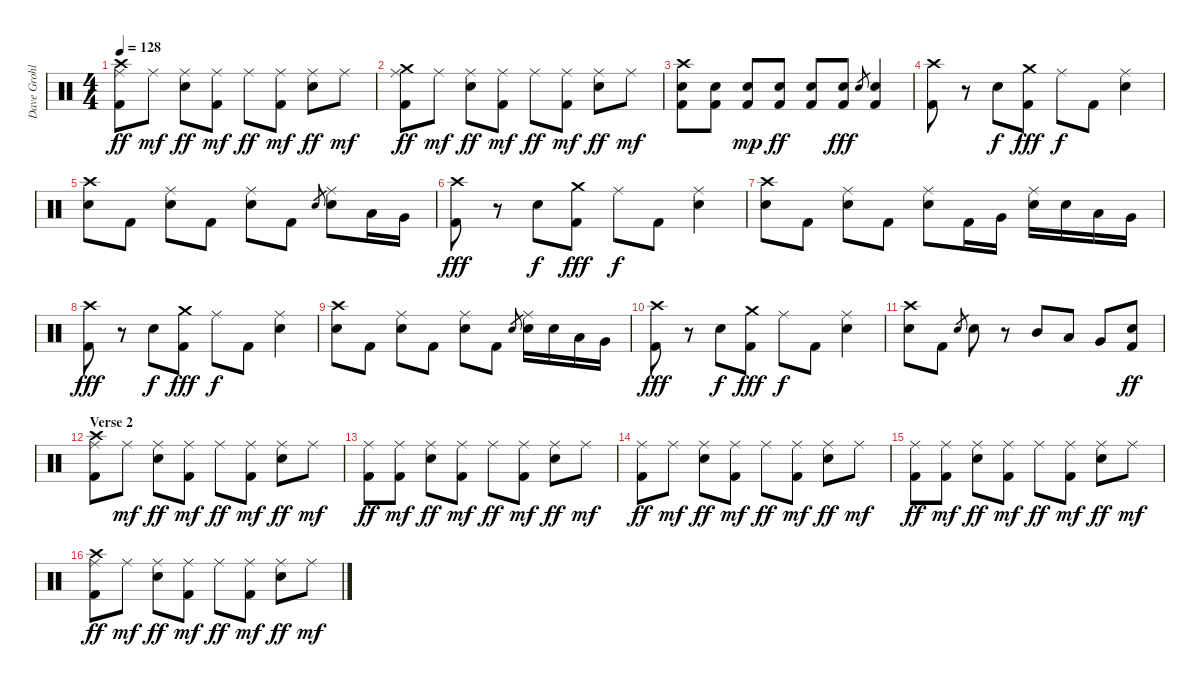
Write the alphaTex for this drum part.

\track ("Dave Grohl" "Dave Grohl") {instrument percussion}
\staff {score}
\articulation defaults
\ts (4 4)
\tempo 128
\clef neutral
\ks c
("Crash high (hit)" "Ride (middle)" "Kick (hit) 2").8{dy ff} "Ride (middle)".8{dy mf} ("Ride (middle)" "Snare (hit) 2").8{dy ff} ("Ride (middle)" "Kick (hit) 2").8{dy mf} "Ride (middle)".8{dy ff} ("Ride (middle)" "Kick (hit) 2").8{dy mf} ("Ride (middle)" "Snare (hit) 2").8{dy ff} "Ride (middle)".8{dy mf} |
("Crash medium (hit)" "Ride (middle)" "Kick (hit) 2").8{dy ff} "Ride (middle)".8{dy mf} ("Ride (middle)" "Snare (hit) 2").8{dy ff} ("Ride (middle)" "Kick (hit) 2").8{dy mf} "Ride (middle)".8{dy ff} ("Ride (middle)" "Kick (hit) 2").8{dy mf} ("Ride (middle)" "Snare (hit) 2").8{dy ff} "Ride (middle)".8{dy mf} |
("Crash high (hit)" "Snare (hit) 2" "Kick (hit) 2").8 ("Snare (hit) 2" "Kick (hit) 2").8 ("Snare (hit) 2" "Kick (hit) 2").8{dy mp} ("Snare (hit) 2" "Kick (hit) 2").8{dy ff} ("Snare (hit) 2" "Kick (hit) 2").8 ("Snare (hit) 2" "Kick (hit) 2").8{dy fff} "Snare (hit) 2".8{gr} ("Snare (hit) 2" "Kick (hit) 2").4 |
("Crash high (hit)" "Kick (hit) 2").8 r.8 "Snare (hit) 2".8{dy f} ("Crash medium (hit)" "Kick (hit) 2").8{dy fff} "Ride (middle)".8{dy f} "Kick (hit) 2".8 ("Ride (middle)" "Snare (hit) 2").4 |
("Crash high (hit)" "Snare (hit) 2").8 "Kick (hit) 2".8 ("Ride (middle)" "Snare (hit) 2").8 "Kick (hit) 2".8 ("Ride (middle)" "Snare (hit) 2").8 "Kick (hit) 2".8 "Snare (hit) 2".8{gr} ("Ride (middle)" "Snare (hit) 2").8 "Low Tom (hit)".16 "Very Low Tom (hit)".16 |
("Crash high (hit)" "Kick (hit) 2").8{dy fff} r.8 "Snare (hit) 2".8{dy f} ("Crash medium (hit)" "Kick (hit) 2").8{dy fff} "Ride (middle)".8{dy f} "Kick (hit) 2".8 ("Ride (middle)" "Snare (hit) 2").4 |
("Crash high (hit)" "Snare (hit) 2").8 "Kick (hit) 2".8 ("Ride (middle)" "Snare (hit) 2").8 "Kick (hit) 2".8 ("Ride (middle)" "Snare (hit) 2").8 "Kick (hit) 2".16 "Very Low Tom (hit)".16 ("Ride (middle)" "Snare (hit) 2").16 "Snare (hit) 2".16 "Low Tom (hit)".16 "Very Low Tom (hit)".16 |
("Crash high (hit)" "Kick (hit) 2").8{dy fff} r.8 "Snare (hit) 2".8{dy f} ("Crash medium (hit)" "Kick (hit) 2").8{dy fff} "Ride (middle)".8{dy f} "Kick (hit) 2".8 ("Ride (middle)" "Snare (hit) 2").4 |
("Crash high (hit)" "Snare (hit) 2").8 "Kick (hit) 2".8 ("Ride (middle)" "Snare (hit) 2").8 "Kick (hit) 2".8 ("Ride (middle)" "Snare (hit) 2").8 "Kick (hit) 2".8 "Snare (hit) 2".8{gr} ("Ride (middle)" "Snare (hit) 2").16 "Snare (hit) 2".16 "Low Tom (hit)".16 "Very Low Tom (hit)".16 |
("Crash high (hit)" "Kick (hit) 2").8{dy fff} r.8 "Snare (hit) 2".8{dy f} ("Crash medium (hit)" "Kick (hit) 2").8{dy fff} "Ride (middle)".8{dy f} "Kick (hit) 2".8 ("Ride (middle)" "Snare (hit) 2").4 |
("Crash high (hit)" "Snare (hit) 2").8 "Kick (hit) 2".8 "Snare (hit) 2".8{gr} "Snare (hit) 2".8 r.8 "Mid Tom (hit)".8 "Low Tom (hit)".8 "Very Low Tom (hit)".8 ("Snare (hit) 2" "Kick (hit) 2").8{dy ff} |
\section ("" "Verse 2")
("Crash high (hit)" "Ride (middle)" "Kick (hit) 2").8 "Ride (middle)".8{dy mf} ("Ride (middle)" "Snare (hit) 2").8{dy ff} ("Ride (middle)" "Kick (hit) 2").8{dy mf} "Ride (middle)".8{dy ff} ("Ride (middle)" "Kick (hit) 2").8{dy mf} ("Ride (middle)" "Snare (hit) 2").8{dy ff} "Ride (middle)".8{dy mf} |
("Ride (middle)" "Kick (hit) 2").8{dy ff} ("Ride (middle)" "Kick (hit) 2").8{dy mf} ("Ride (middle)" "Snare (hit) 2").8{dy ff} ("Ride (middle)" "Kick (hit) 2").8{dy mf} "Ride (middle)".8{dy ff} ("Ride (middle)" "Kick (hit) 2").8{dy mf} ("Ride (middle)" "Snare (hit) 2").8{dy ff} "Ride (middle)".8{dy mf} |
("Ride (middle)" "Kick (hit) 2").8{dy ff} "Ride (middle)".8{dy mf} ("Ride (middle)" "Snare (hit) 2").8{dy ff} ("Ride (middle)" "Kick (hit) 2").8{dy mf} "Ride (middle)".8{dy ff} ("Ride (middle)" "Kick (hit) 2").8{dy mf} ("Ride (middle)" "Snare (hit) 2").8{dy ff} "Ride (middle)".8{dy mf} |
("Ride (middle)" "Kick (hit) 2").8{dy ff} ("Ride (middle)" "Kick (hit) 2").8{dy mf} ("Ride (middle)" "Snare (hit) 2").8{dy ff} ("Ride (middle)" "Kick (hit) 2").8{dy mf} "Ride (middle)".8{dy ff} ("Ride (middle)" "Kick (hit) 2").8{dy mf} ("Ride (middle)" "Snare (hit) 2").8{dy ff} "Ride (middle)".8{dy mf} |
("Crash high (hit)" "Ride (middle)" "Kick (hit) 2").8{dy ff} "Ride (middle)".8{dy mf} ("Ride (middle)" "Snare (hit) 2").8{dy ff} ("Ride (middle)" "Kick (hit) 2").8{dy mf} "Ride (middle)".8{dy ff} ("Ride (middle)" "Kick (hit) 2").8{dy mf} ("Ride (middle)" "Snare (hit) 2").8{dy ff} "Ride (middle)".8{dy mf}
